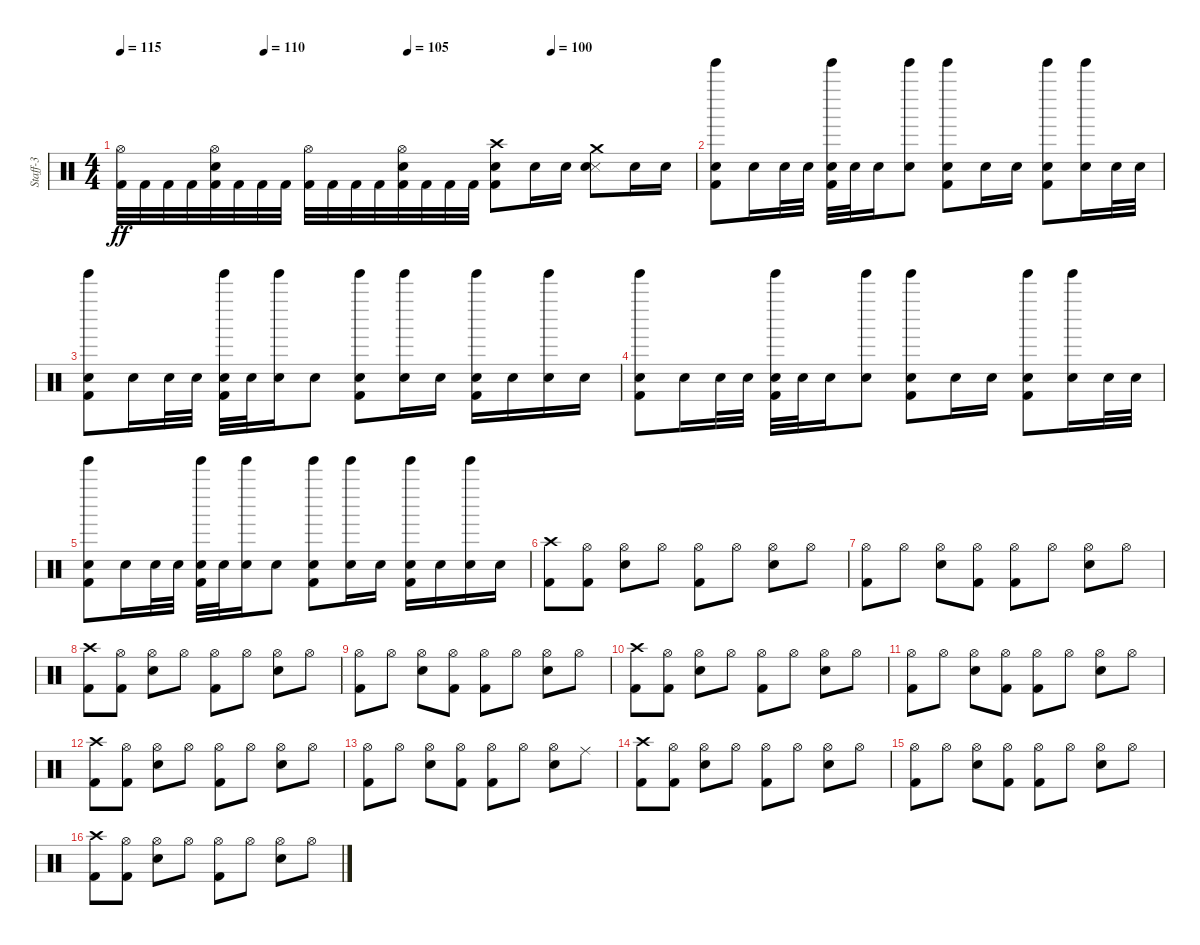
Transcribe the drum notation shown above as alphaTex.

\track ("Staff-3" "Staff-3") {instrument percussion}
\staff {score}
\articulation defaults
\ts (4 4)
\tempo 115
\tempo (110 0.25)
\tempo (105 0.5)
\tempo (100 0.75)
\clef neutral
\ks c
("Kick (hit) 2" "Hi-Hat (open)").32{dy ff} "Kick (hit) 2".32 "Kick (hit) 2".32 "Kick (hit) 2".32 ("Kick (hit) 2" "Snare (hit) 2" "Hi-Hat (open)").32 "Kick (hit) 2".32 "Kick (hit) 2".32 "Kick (hit) 2".32 ("Kick (hit) 2" "Hi-Hat (open)").32 "Kick (hit) 2".32 "Kick (hit) 2".32 "Kick (hit) 2".32 ("Kick (hit) 2" "Snare (hit) 2" "Hi-Hat (open)").32 "Kick (hit) 2".32 "Kick (hit) 2".32 "Kick (hit) 2".32 ("Kick (hit) 2" "Snare (hit) 2" "Crash high (hit)").8 "Snare (hit) 2".16 "Snare (hit) 2".16 ("Snare (side stick) 3" "Snare (hit) 2" "Crash medium (hit)").8 "Snare (hit) 2".16 "Snare (hit) 2".16 |
("Kick (hit) 2" "Electric Snare (hit)" "Tinkle Bell (hit)").8 "Electric Snare (hit)".16 "Electric Snare (hit)".32 "Electric Snare (hit)".32 ("Kick (hit) 2" "Electric Snare (hit)" "Tinkle Bell (hit)").32 "Electric Snare (hit)".32 "Electric Snare (hit)".16 ("Electric Snare (hit)" "Tinkle Bell (hit)").8 ("Kick (hit) 2" "Electric Snare (hit)" "Tinkle Bell (hit)").8 "Electric Snare (hit)".16 "Electric Snare (hit)".16 ("Kick (hit) 2" "Electric Snare (hit)" "Tinkle Bell (hit)").8 ("Electric Snare (hit)" "Tinkle Bell (hit)").16 "Electric Snare (hit)".32 "Electric Snare (hit)".32 |
("Kick (hit) 2" "Electric Snare (hit)" "Tinkle Bell (hit)").8 "Electric Snare (hit)".16 "Electric Snare (hit)".32 "Electric Snare (hit)".32 ("Kick (hit) 2" "Electric Snare (hit)" "Tinkle Bell (hit)").32 "Electric Snare (hit)".32 ("Electric Snare (hit)" "Tinkle Bell (hit)").16 "Electric Snare (hit)".8 ("Kick (hit) 2" "Electric Snare (hit)" "Tinkle Bell (hit)").8 ("Electric Snare (hit)" "Tinkle Bell (hit)").16 "Electric Snare (hit)".16 ("Kick (hit) 2" "Electric Snare (hit)" "Tinkle Bell (hit)").16 "Electric Snare (hit)".16 ("Electric Snare (hit)" "Tinkle Bell (hit)").16 "Electric Snare (hit)".16 |
("Kick (hit) 2" "Electric Snare (hit)" "Tinkle Bell (hit)").8 "Electric Snare (hit)".16 "Electric Snare (hit)".32 "Electric Snare (hit)".32 ("Kick (hit) 2" "Electric Snare (hit)" "Tinkle Bell (hit)").32 "Electric Snare (hit)".32 "Electric Snare (hit)".16 ("Electric Snare (hit)" "Tinkle Bell (hit)").8 ("Kick (hit) 2" "Electric Snare (hit)" "Tinkle Bell (hit)").8 "Electric Snare (hit)".16 "Electric Snare (hit)".16 ("Kick (hit) 2" "Electric Snare (hit)" "Tinkle Bell (hit)").8 ("Electric Snare (hit)" "Tinkle Bell (hit)").16 "Electric Snare (hit)".32 "Electric Snare (hit)".32 |
("Kick (hit) 2" "Electric Snare (hit)" "Tinkle Bell (hit)").8 "Electric Snare (hit)".16 "Electric Snare (hit)".32 "Electric Snare (hit)".32 ("Kick (hit) 2" "Electric Snare (hit)" "Tinkle Bell (hit)").32 "Electric Snare (hit)".32 ("Electric Snare (hit)" "Tinkle Bell (hit)").16 "Electric Snare (hit)".8 ("Kick (hit) 2" "Electric Snare (hit)" "Tinkle Bell (hit)").8 ("Electric Snare (hit)" "Tinkle Bell (hit)").16 "Electric Snare (hit)".16 ("Kick (hit) 2" "Electric Snare (hit)" "Tinkle Bell (hit)").16 "Electric Snare (hit)".16 ("Electric Snare (hit)" "Tinkle Bell (hit)").16 "Electric Snare (hit)".16 |
("Kick (hit) 2" "Crash high (hit)").8 ("Kick (hit) 2" "Hi-Hat (open)").8 ("Snare (hit) 2" "Hi-Hat (open)").8 "Hi-Hat (open)".8 ("Kick (hit) 2" "Hi-Hat (open)").8 "Hi-Hat (open)".8 ("Snare (hit) 2" "Hi-Hat (open)").8 "Hi-Hat (open)".8 |
("Kick (hit) 2" "Hi-Hat (open)").8 "Hi-Hat (open)".8 ("Snare (hit) 2" "Hi-Hat (open)").8 ("Kick (hit) 2" "Hi-Hat (open)").8 ("Kick (hit) 2" "Hi-Hat (open)").8 "Hi-Hat (open)".8 ("Snare (hit) 2" "Hi-Hat (open)").8 "Hi-Hat (open)".8 |
("Kick (hit) 2" "Crash high (hit)").8 ("Kick (hit) 2" "Hi-Hat (open)").8 ("Snare (hit) 2" "Hi-Hat (open)").8 "Hi-Hat (open)".8 ("Kick (hit) 2" "Hi-Hat (open)").8 "Hi-Hat (open)".8 ("Snare (hit) 2" "Hi-Hat (open)").8 "Hi-Hat (open)".8 |
("Kick (hit) 2" "Hi-Hat (open)").8 "Hi-Hat (open)".8 ("Snare (hit) 2" "Hi-Hat (open)").8 ("Kick (hit) 2" "Hi-Hat (open)").8 ("Kick (hit) 2" "Hi-Hat (open)").8 "Hi-Hat (open)".8 ("Snare (hit) 2" "Hi-Hat (open)").8 "Hi-Hat (open)".8 |
("Kick (hit) 2" "Crash high (hit)").8 ("Kick (hit) 2" "Hi-Hat (open)").8 ("Snare (hit) 2" "Hi-Hat (open)").8 "Hi-Hat (open)".8 ("Kick (hit) 2" "Hi-Hat (open)").8 "Hi-Hat (open)".8 ("Snare (hit) 2" "Hi-Hat (open)").8 "Hi-Hat (open)".8 |
("Kick (hit) 2" "Hi-Hat (open)").8 "Hi-Hat (open)".8 ("Snare (hit) 2" "Hi-Hat (open)").8 ("Kick (hit) 2" "Hi-Hat (open)").8 ("Kick (hit) 2" "Hi-Hat (open)").8 "Hi-Hat (open)".8 ("Snare (hit) 2" "Hi-Hat (open)").8 "Hi-Hat (open)".8 |
("Kick (hit) 2" "Crash high (hit)").8 ("Kick (hit) 2" "Hi-Hat (open)").8 ("Snare (hit) 2" "Hi-Hat (open)").8 "Hi-Hat (open)".8 ("Kick (hit) 2" "Hi-Hat (open)").8 "Hi-Hat (open)".8 ("Snare (hit) 2" "Hi-Hat (open)").8 "Hi-Hat (open)".8 |
("Kick (hit) 2" "Hi-Hat (open)").8 "Hi-Hat (open)".8 ("Snare (hit) 2" "Hi-Hat (open)").8 ("Kick (hit) 2" "Hi-Hat (open)").8 ("Kick (hit) 2" "Hi-Hat (open)").8 "Hi-Hat (open)".8 ("Snare (hit) 2" "Hi-Hat (open)").8 "Ride (middle)".8 |
("Kick (hit) 2" "Crash high (hit)").8 ("Kick (hit) 2" "Hi-Hat (open)").8 ("Snare (hit) 2" "Hi-Hat (open)").8 "Hi-Hat (open)".8 ("Kick (hit) 2" "Hi-Hat (open)").8 "Hi-Hat (open)".8 ("Snare (hit) 2" "Hi-Hat (open)").8 "Hi-Hat (open)".8 |
("Kick (hit) 2" "Hi-Hat (open)").8 "Hi-Hat (open)".8 ("Snare (hit) 2" "Hi-Hat (open)").8 ("Kick (hit) 2" "Hi-Hat (open)").8 ("Kick (hit) 2" "Hi-Hat (open)").8 "Hi-Hat (open)".8 ("Snare (hit) 2" "Hi-Hat (open)").8 "Hi-Hat (open)".8 |
("Kick (hit) 2" "Crash high (hit)").8 ("Kick (hit) 2" "Hi-Hat (open)").8 ("Snare (hit) 2" "Hi-Hat (open)").8 "Hi-Hat (open)".8 ("Kick (hit) 2" "Hi-Hat (open)").8 "Hi-Hat (open)".8 ("Snare (hit) 2" "Hi-Hat (open)").8 "Hi-Hat (open)".8
